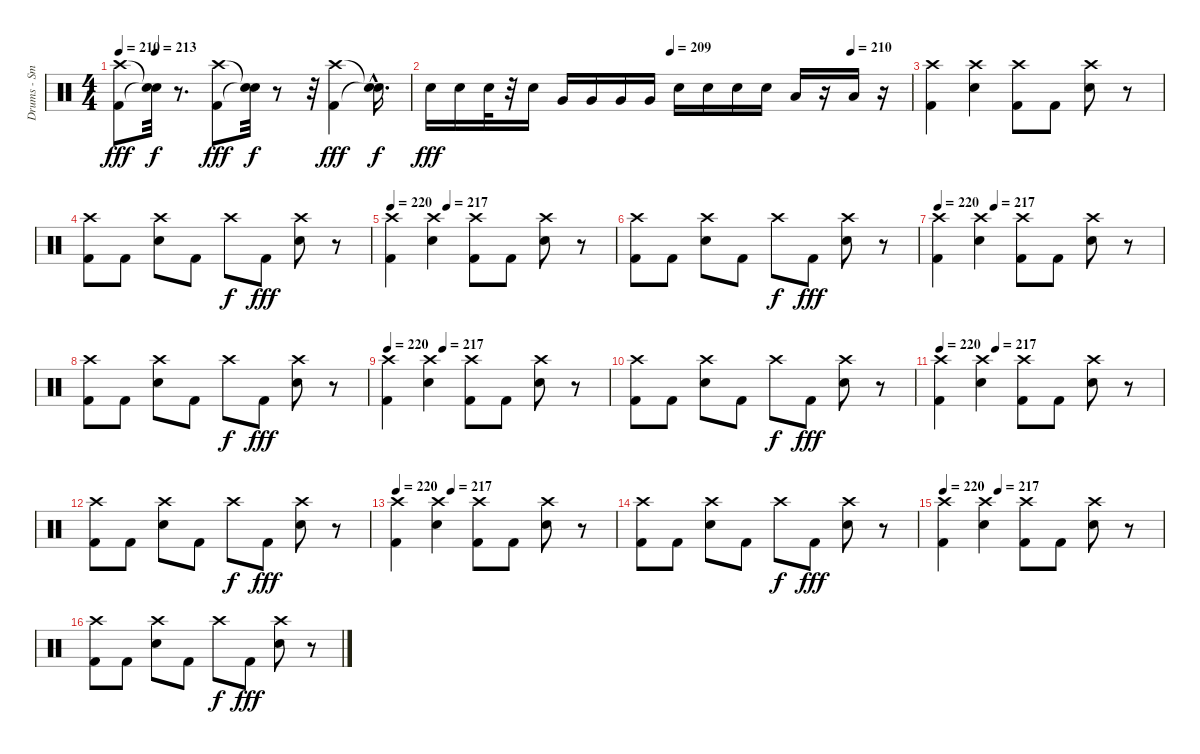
\track ("Drums - Smelly" "Drums - Sm") {instrument percussion}
\staff {score}
\articulation defaults
\ts (4 4)
\tempo 210
\tempo (213 0.125)
\clef neutral
\ks c
("Crash high (hit)" "Kick (hit) 2").8{dy fff} ("Snare (hit)"{t} "Snare (hit)"{t}).32{dy f} r.8{d} ("Crash high (hit)" "Kick (hit) 2").8{dy fff} ("Snare (hit)"{t} "Snare (hit)"{t}).32{dy f} r.8 r.32 ("Kick (hit) 2" "Crash high (hit)").4{dy fff} ("Snare (hit)"{hac t} "Snare (hit)"{hac t}).16{d dy f} |
\tempo (209 0.5)
\tempo (210 0.875)
"Electric Snare (hit)".16{dy fff} "Electric Snare (hit)".16 "Electric Snare (hit)".32 r.32 "Electric Snare (hit)".16 "Very Low Tom (hit)".16 "Very Low Tom (hit)".16 "Very Low Tom (hit)".16 "Very Low Tom (hit)".16 "Electric Snare (hit)".16 "Electric Snare (hit)".16 "Electric Snare (hit)".16 "Electric Snare (hit)".16 "Low Floor Tom (hit)".16 r.16 "Low Floor Tom (hit)".16 r.16 |
("Crash high (hit)" "Kick (hit) 2").4 ("Crash high (hit)" "Electric Snare (hit)").4 ("Crash high (hit)" "Kick (hit) 2").8 "Kick (hit) 2".8 ("Crash high (hit)" "Electric Snare (hit)").8 r.8 |
("Crash high (hit)" "Kick (hit) 2").8 "Kick (hit) 2".8 ("Crash high (hit)" "Electric Snare (hit)").8 "Kick (hit) 2".8 "Crash high (hit)".8{dy f} "Kick (hit) 2".8{dy fff} ("Crash high (hit)" "Electric Snare (hit)").8 r.8 |
\tempo 220
\tempo (217 0.25)
("Crash high (hit)" "Kick (hit) 2").4 ("Crash high (hit)" "Electric Snare (hit)").4 ("Crash high (hit)" "Kick (hit) 2").8 "Kick (hit) 2".8 ("Crash high (hit)" "Electric Snare (hit)").8 r.8 |
("Crash high (hit)" "Kick (hit) 2").8 "Kick (hit) 2".8 ("Crash high (hit)" "Electric Snare (hit)").8 "Kick (hit) 2".8 "Crash high (hit)".8{dy f} "Kick (hit) 2".8{dy fff} ("Crash high (hit)" "Electric Snare (hit)").8 r.8 |
\tempo 220
\tempo (217 0.25)
("Crash high (hit)" "Kick (hit) 2").4 ("Crash high (hit)" "Electric Snare (hit)").4 ("Crash high (hit)" "Kick (hit) 2").8 "Kick (hit) 2".8 ("Crash high (hit)" "Electric Snare (hit)").8 r.8 |
("Crash high (hit)" "Kick (hit) 2").8 "Kick (hit) 2".8 ("Crash high (hit)" "Electric Snare (hit)").8 "Kick (hit) 2".8 "Crash high (hit)".8{dy f} "Kick (hit) 2".8{dy fff} ("Crash high (hit)" "Electric Snare (hit)").8 r.8 |
\tempo 220
\tempo (217 0.25)
("Crash high (hit)" "Kick (hit) 2").4 ("Crash high (hit)" "Electric Snare (hit)").4 ("Crash high (hit)" "Kick (hit) 2").8 "Kick (hit) 2".8 ("Crash high (hit)" "Electric Snare (hit)").8 r.8 |
("Crash high (hit)" "Kick (hit) 2").8 "Kick (hit) 2".8 ("Crash high (hit)" "Electric Snare (hit)").8 "Kick (hit) 2".8 "Crash high (hit)".8{dy f} "Kick (hit) 2".8{dy fff} ("Crash high (hit)" "Electric Snare (hit)").8 r.8 |
\tempo 220
\tempo (217 0.25)
("Crash high (hit)" "Kick (hit) 2").4 ("Crash high (hit)" "Electric Snare (hit)").4 ("Crash high (hit)" "Kick (hit) 2").8 "Kick (hit) 2".8 ("Crash high (hit)" "Electric Snare (hit)").8 r.8 |
("Crash high (hit)" "Kick (hit) 2").8 "Kick (hit) 2".8 ("Crash high (hit)" "Electric Snare (hit)").8 "Kick (hit) 2".8 "Crash high (hit)".8{dy f} "Kick (hit) 2".8{dy fff} ("Crash high (hit)" "Electric Snare (hit)").8 r.8 |
\tempo 220
\tempo (217 0.25)
("Crash high (hit)" "Kick (hit) 2").4 ("Crash high (hit)" "Electric Snare (hit)").4 ("Crash high (hit)" "Kick (hit) 2").8 "Kick (hit) 2".8 ("Crash high (hit)" "Electric Snare (hit)").8 r.8 |
("Crash high (hit)" "Kick (hit) 2").8 "Kick (hit) 2".8 ("Crash high (hit)" "Electric Snare (hit)").8 "Kick (hit) 2".8 "Crash high (hit)".8{dy f} "Kick (hit) 2".8{dy fff} ("Crash high (hit)" "Electric Snare (hit)").8 r.8 |
\tempo 220
\tempo (217 0.25)
("Crash high (hit)" "Kick (hit) 2").4 ("Crash high (hit)" "Electric Snare (hit)").4 ("Crash high (hit)" "Kick (hit) 2").8 "Kick (hit) 2".8 ("Crash high (hit)" "Electric Snare (hit)").8 r.8 |
("Crash high (hit)" "Kick (hit) 2").8 "Kick (hit) 2".8 ("Crash high (hit)" "Electric Snare (hit)").8 "Kick (hit) 2".8 "Crash high (hit)".8{dy f} "Kick (hit) 2".8{dy fff} ("Crash high (hit)" "Electric Snare (hit)").8 r.8
